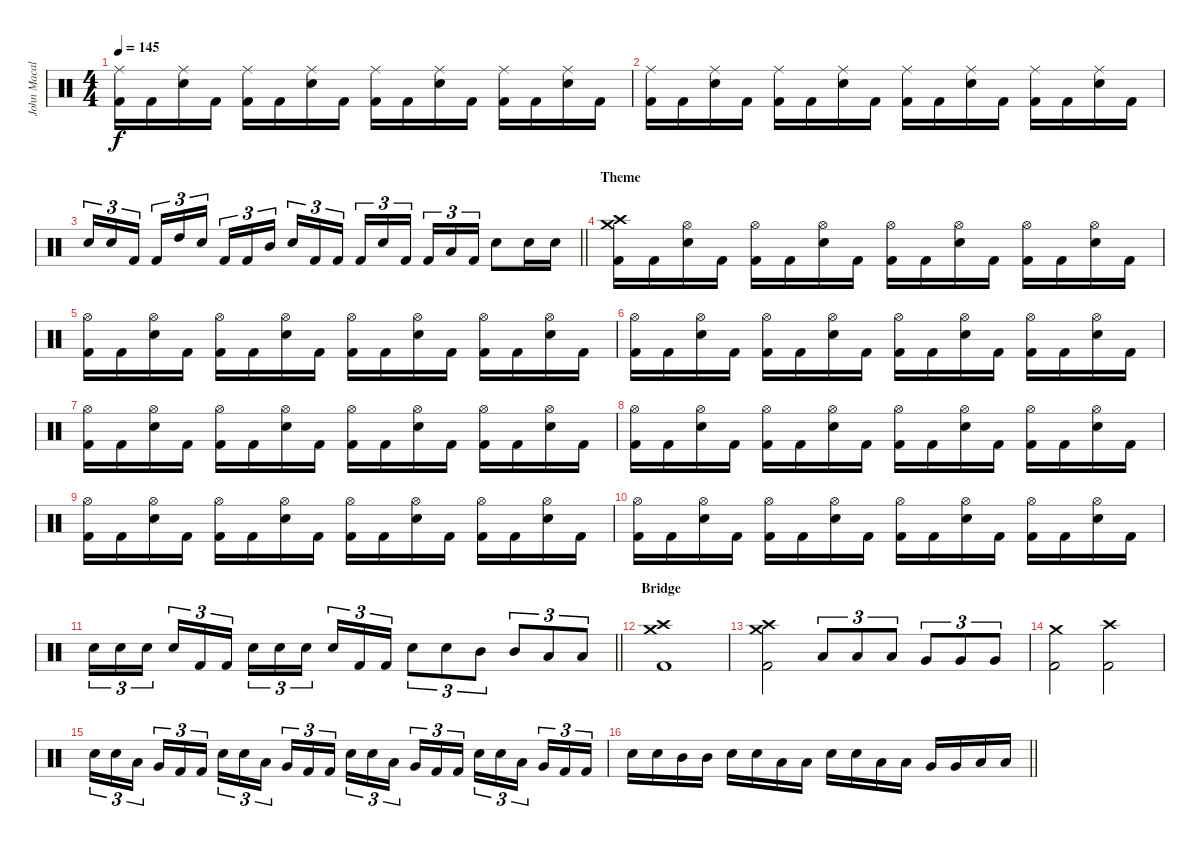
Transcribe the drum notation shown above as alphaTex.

\track ("John Macaluso" "John Macal") {instrument percussion}
\staff {score}
\articulation defaults
\ts (4 4)
\tempo 145
\clef neutral
\ks c
("Ride (middle)" "Kick (hit) 2").16{dy f} "Kick (hit) 2".16 ("Ride (middle)" "Snare (hit) 2").16 "Kick (hit) 2".16 ("Ride (middle)" "Kick (hit) 2").16 "Kick (hit) 2".16 ("Ride (middle)" "Snare (hit) 2").16 "Kick (hit) 2".16 ("Ride (middle)" "Kick (hit) 2").16 "Kick (hit) 2".16 ("Ride (middle)" "Snare (hit) 2").16 "Kick (hit) 2".16 ("Ride (middle)" "Kick (hit) 2").16 "Kick (hit) 2".16 ("Ride (middle)" "Snare (hit) 2").16 "Kick (hit) 2".16 |
("Ride (middle)" "Kick (hit) 2").16 "Kick (hit) 2".16 ("Ride (middle)" "Snare (hit) 2").16 "Kick (hit) 2".16 ("Ride (middle)" "Kick (hit) 2").16 "Kick (hit) 2".16 ("Ride (middle)" "Snare (hit) 2").16 "Kick (hit) 2".16 ("Ride (middle)" "Kick (hit) 2").16 "Kick (hit) 2".16 ("Ride (middle)" "Snare (hit) 2").16 "Kick (hit) 2".16 ("Ride (middle)" "Kick (hit) 2").16 "Kick (hit) 2".16 ("Ride (middle)" "Snare (hit) 2").16 "Kick (hit) 2".16 |
\barLineRight lightlight "Snare (hit) 2".16{tu (3 2)} "Snare (hit) 2".16{tu (3 2)} "Kick (hit) 2".16{tu (3 2) beam splitsecondary} "Kick (hit) 2".16{tu (3 2)} "High Tom (hit)".16{tu (3 2)} "Snare (hit) 2".16{tu (3 2)} "Kick (hit) 2".16{tu (3 2)} "Kick (hit) 2".16{tu (3 2)} "Mid Tom (hit)".16{tu (3 2) beam splitsecondary} "Snare (hit) 2".16{tu (3 2)} "Kick (hit) 2".16{tu (3 2)} "Kick (hit) 2".16{tu (3 2)} "Kick (hit) 2".16{tu (3 2)} "Snare (hit) 2".16{tu (3 2)} "Kick (hit) 2".16{tu (3 2) beam splitsecondary} "Kick (hit) 2".16{tu (3 2)} "Low Tom (hit)".16{tu (3 2)} "Kick (hit) 2".16{tu (3 2)} "Snare (hit) 2".8 "Snare (hit) 2".16 "Snare (hit) 2".16
|
\section ("" "Theme")
("Crash high (hit)" "Crash medium (hit)" "Kick (hit) 2").16 "Kick (hit) 2".16 ("Hi-Hat (open)" "Snare (hit) 2").16 "Kick (hit) 2".16 ("Hi-Hat (open)" "Kick (hit) 2").16 "Kick (hit) 2".16 ("Hi-Hat (open)" "Snare (hit) 2").16 "Kick (hit) 2".16 ("Hi-Hat (open)" "Kick (hit) 2").16 "Kick (hit) 2".16 ("Hi-Hat (open)" "Snare (hit) 2").16 "Kick (hit) 2".16 ("Hi-Hat (open)" "Kick (hit) 2").16 "Kick (hit) 2".16 ("Hi-Hat (open)" "Snare (hit) 2").16 "Kick (hit) 2".16 |
("Hi-Hat (open)" "Kick (hit) 2").16 "Kick (hit) 2".16 ("Hi-Hat (open)" "Snare (hit) 2").16 "Kick (hit) 2".16 ("Hi-Hat (open)" "Kick (hit) 2").16 "Kick (hit) 2".16 ("Hi-Hat (open)" "Snare (hit) 2").16 "Kick (hit) 2".16 ("Hi-Hat (open)" "Kick (hit) 2").16 "Kick (hit) 2".16 ("Hi-Hat (open)" "Snare (hit) 2").16 "Kick (hit) 2".16 ("Hi-Hat (open)" "Kick (hit) 2").16 "Kick (hit) 2".16 ("Hi-Hat (open)" "Snare (hit) 2").16 "Kick (hit) 2".16 |
("Hi-Hat (open)" "Kick (hit) 2").16 "Kick (hit) 2".16 ("Hi-Hat (open)" "Snare (hit) 2").16 "Kick (hit) 2".16 ("Hi-Hat (open)" "Kick (hit) 2").16 "Kick (hit) 2".16 ("Hi-Hat (open)" "Snare (hit) 2").16 "Kick (hit) 2".16 ("Hi-Hat (open)" "Kick (hit) 2").16 "Kick (hit) 2".16 ("Hi-Hat (open)" "Snare (hit) 2").16 "Kick (hit) 2".16 ("Hi-Hat (open)" "Kick (hit) 2").16 "Kick (hit) 2".16 ("Hi-Hat (open)" "Snare (hit) 2").16 "Kick (hit) 2".16 |
("Hi-Hat (open)" "Kick (hit) 2").16 "Kick (hit) 2".16 ("Hi-Hat (open)" "Snare (hit) 2").16 "Kick (hit) 2".16 ("Hi-Hat (open)" "Kick (hit) 2").16 "Kick (hit) 2".16 ("Hi-Hat (open)" "Snare (hit) 2").16 "Kick (hit) 2".16 ("Hi-Hat (open)" "Kick (hit) 2").16 "Kick (hit) 2".16 ("Hi-Hat (open)" "Snare (hit) 2").16 "Kick (hit) 2".16 ("Hi-Hat (open)" "Kick (hit) 2").16 "Kick (hit) 2".16 ("Hi-Hat (open)" "Snare (hit) 2").16 "Kick (hit) 2".16 |
("Hi-Hat (open)" "Kick (hit) 2").16 "Kick (hit) 2".16 ("Hi-Hat (open)" "Snare (hit) 2").16 "Kick (hit) 2".16 ("Hi-Hat (open)" "Kick (hit) 2").16 "Kick (hit) 2".16 ("Hi-Hat (open)" "Snare (hit) 2").16 "Kick (hit) 2".16 ("Hi-Hat (open)" "Kick (hit) 2").16 "Kick (hit) 2".16 ("Hi-Hat (open)" "Snare (hit) 2").16 "Kick (hit) 2".16 ("Hi-Hat (open)" "Kick (hit) 2").16 "Kick (hit) 2".16 ("Hi-Hat (open)" "Snare (hit) 2").16 "Kick (hit) 2".16 |
("Hi-Hat (open)" "Kick (hit) 2").16 "Kick (hit) 2".16 ("Hi-Hat (open)" "Snare (hit) 2").16 "Kick (hit) 2".16 ("Hi-Hat (open)" "Kick (hit) 2").16 "Kick (hit) 2".16 ("Hi-Hat (open)" "Snare (hit) 2").16 "Kick (hit) 2".16 ("Hi-Hat (open)" "Kick (hit) 2").16 "Kick (hit) 2".16 ("Hi-Hat (open)" "Snare (hit) 2").16 "Kick (hit) 2".16 ("Hi-Hat (open)" "Kick (hit) 2").16 "Kick (hit) 2".16 ("Hi-Hat (open)" "Snare (hit) 2").16 "Kick (hit) 2".16 |
("Hi-Hat (open)" "Kick (hit) 2").16 "Kick (hit) 2".16 ("Hi-Hat (open)" "Snare (hit) 2").16 "Kick (hit) 2".16 ("Hi-Hat (open)" "Kick (hit) 2").16 "Kick (hit) 2".16 ("Hi-Hat (open)" "Snare (hit) 2").16 "Kick (hit) 2".16 ("Hi-Hat (open)" "Kick (hit) 2").16 "Kick (hit) 2".16 ("Hi-Hat (open)" "Snare (hit) 2").16 "Kick (hit) 2".16 ("Hi-Hat (open)" "Kick (hit) 2").16 "Kick (hit) 2".16 ("Hi-Hat (open)" "Snare (hit) 2").16 "Kick (hit) 2".16 |
\barLineRight lightlight "Snare (hit) 2".16{tu (3 2)} "Snare (hit) 2".16{tu (3 2)} "Snare (hit) 2".16{tu (3 2) beam splitsecondary} "Snare (hit) 2".16{tu (3 2)} "Kick (hit) 2".16{tu (3 2)} "Kick (hit) 2".16{tu (3 2)} "Snare (hit) 2".16{tu (3 2)} "Snare (hit) 2".16{tu (3 2)} "Snare (hit) 2".16{tu (3 2) beam splitsecondary} "Snare (hit) 2".16{tu (3 2)} "Kick (hit) 2".16{tu (3 2)} "Kick (hit) 2".16{tu (3 2)} "Snare (hit) 2".8{tu (3 2)} "Snare (hit) 2".8{tu (3 2)} "Mid Tom (hit)".8{tu (3 2)} "Mid Tom (hit)".8{tu (3 2)} "Low Tom (hit)".8{tu (3 2)} "Low Tom (hit)".8{tu (3 2)}
|
\section ("" "Bridge")
("Crash medium (hit)" "Crash high (hit)" "Kick (hit) 2").1 |
("Crash medium (hit)" "Crash high (hit)" "Kick (hit) 2").2 "Low Tom (hit)".8{tu (3 2)} "Low Tom (hit)".8{tu (3 2)} "Low Tom (hit)".8{tu (3 2)} "Very Low Tom (hit)".8{tu (3 2)} "Very Low Tom (hit)".8{tu (3 2)} "Very Low Tom (hit)".8{tu (3 2)} |
("Crash medium (hit)" "Kick (hit) 2").2 ("Crash high (hit)" "Kick (hit) 2").2 |
"Snare (hit) 2".16{tu (3 2)} "Snare (hit) 2".16{tu (3 2)} "Low Tom (hit)".16{tu (3 2) beam splitsecondary} "Very Low Tom (hit)".16{tu (3 2)} "Kick (hit) 2".16{tu (3 2)} "Kick (hit) 2".16{tu (3 2)} "Snare (hit) 2".16{tu (3 2)} "Snare (hit) 2".16{tu (3 2)} "Low Tom (hit)".16{tu (3 2) beam splitsecondary} "Very Low Tom (hit)".16{tu (3 2)} "Kick (hit) 2".16{tu (3 2)} "Kick (hit) 2".16{tu (3 2)} "Snare (hit) 2".16{tu (3 2)} "Snare (hit) 2".16{tu (3 2)} "Low Tom (hit)".16{tu (3 2) beam splitsecondary} "Very Low Tom (hit)".16{tu (3 2)} "Kick (hit) 2".16{tu (3 2)} "Kick (hit) 2".16{tu (3 2)} "Snare (hit) 2".16{tu (3 2)} "Snare (hit) 2".16{tu (3 2)} "Low Tom (hit)".16{tu (3 2) beam splitsecondary} "Very Low Tom (hit)".16{tu (3 2)} "Kick (hit) 2".16{tu (3 2)} "Kick (hit) 2".16{tu (3 2)} |
\barLineRight lightlight "Snare (hit) 2".16 "Snare (hit) 2".16 "Mid Tom (hit)".16 "Mid Tom (hit)".16 "Snare (hit) 2".16 "Snare (hit) 2".16 "Low Tom (hit)".16 "Low Tom (hit)".16 "Snare (hit) 2".16 "Snare (hit) 2".16 "Low Tom (hit)".16 "Low Tom (hit)".16 "Very Low Tom (hit)".16 "Very Low Tom (hit)".16 "Low Floor Tom (hit)".16 "Low Floor Tom (hit)".16
